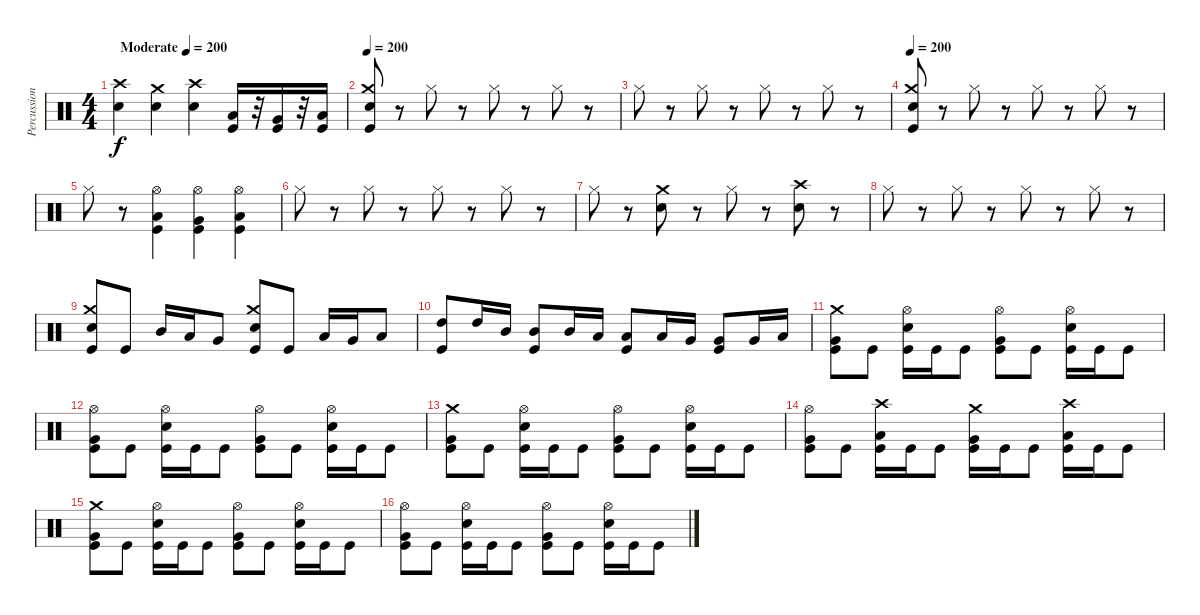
\track ("Percussion" "Percussion") {instrument percussion}
\staff {score}
\articulation defaults
\ts (4 4)
\tempo (200 "Moderate")
\tempo 100
\tempo (200 "Moderate")
\clef neutral
\ks c
("Snare (hit) 2" "Crash high (hit)").4{dy f} ("Snare (hit) 2" "Crash medium (hit)").4 ("Snare (hit) 2" "Crash high (hit)").4 ("Low Floor Tom (hit)" "Kick (hit)").16 r.32 ("Very Low Tom (hit)" "Kick (hit)").16 r.32 ("Low Tom (hit)" "Kick (hit)").16 |
\tempo 200
("Snare (hit) 2" "Crash medium (hit)" "Kick (hit)").8 r.8 "Hi-Hat (closed)".8 r.8 "Hi-Hat (closed)".8 r.8 "Hi-Hat (closed)".8 r.8 |
"Hi-Hat (closed)".8 r.8 "Hi-Hat (closed)".8 r.8 "Hi-Hat (closed)".8 r.8 "Hi-Hat (closed)".8 r.8 |
\tempo 200
("Snare (hit) 2" "Crash medium (hit)" "Kick (hit)").8 r.8 "Hi-Hat (closed)".8 r.8 "Hi-Hat (closed)".8 r.8 "Hi-Hat (closed)".8 r.8 |
"Hi-Hat (closed)".8 r.8 ("Low Tom (hit)" "Hi-Hat (open)" "Kick (hit)").4 ("Very Low Tom (hit)" "Hi-Hat (open)" "Kick (hit)").4 ("Low Floor Tom (hit)" "Hi-Hat (open)" "Kick (hit)").4 |
"Hi-Hat (closed)".8 r.8 "Hi-Hat (closed)".8 r.8 "Hi-Hat (closed)".8 r.8 "Hi-Hat (closed)".8 r.8 |
"Hi-Hat (closed)".8 r.8 ("Snare (hit) 2" "Crash medium (hit)").8 r.8 "Hi-Hat (closed)".8 r.8 ("Snare (hit) 2" "Crash high (hit)").8 r.8 |
"Hi-Hat (closed)".8 r.8 "Hi-Hat (closed)".8 r.8 "Hi-Hat (closed)".8 r.8 "Hi-Hat (closed)".8 r.8 |
("Snare (hit) 2" "Crash medium (hit)" "Kick (hit)").8 "Kick (hit)".8 "Mid Tom (hit)".16 "Low Tom (hit)".16 "Very Low Tom (hit)".8 ("Snare (hit) 2" "Crash medium (hit)" "Kick (hit)").8 "Kick (hit)".8 "Low Tom (hit)".16 "Very Low Tom (hit)".16 "Low Floor Tom (hit)".8 |
("High Tom (hit)" "Kick (hit)").8{balance 6} "High Tom (hit)".16 "Mid Tom (hit)".16 ("Mid Tom (hit)" "Kick (hit)").8{balance 4} "Mid Tom (hit)".16 "Low Tom (hit)".16 ("Low Tom (hit)" "Kick (hit)").8{balance 10} "Low Tom (hit)".16 "Very Low Tom (hit)".16 ("Very Low Tom (hit)" "Kick (hit)").8{balance 12} "Very Low Tom (hit)".16 "Low Floor Tom (hit)".16 |
("Kick (hit)" "Very Low Tom (hit)" "Crash medium (hit)").8{balance 8} "Kick (hit)".8 ("Kick (hit)" "Snare (hit) 2" "Hi-Hat (open)").16 "Kick (hit)".16 "Kick (hit)".8 ("Kick (hit)" "Very Low Tom (hit)" "Hi-Hat (open)").8 "Kick (hit)".8 ("Kick (hit)" "Snare (hit) 2" "Hi-Hat (open)").16 "Kick (hit)".16 "Kick (hit)".8 |
("Kick (hit)" "Very Low Tom (hit)" "Hi-Hat (open)").8 "Kick (hit)".8 ("Kick (hit)" "Snare (hit) 2" "Hi-Hat (open)").16 "Kick (hit)".16 "Kick (hit)".8 ("Kick (hit)" "Very Low Tom (hit)" "Hi-Hat (open)").8 "Kick (hit)".8 ("Kick (hit)" "Snare (hit) 2" "Hi-Hat (open)").16 "Kick (hit)".16 "Kick (hit)".8 |
("Kick (hit)" "Very Low Tom (hit)" "Crash medium (hit)").8 "Kick (hit)".8 ("Kick (hit)" "Snare (hit) 2" "Hi-Hat (open)").16 "Kick (hit)".16 "Kick (hit)".8 ("Kick (hit)" "Very Low Tom (hit)" "Hi-Hat (open)").8 "Kick (hit)".8 ("Kick (hit)" "Snare (hit) 2" "Hi-Hat (open)").16 "Kick (hit)".16 "Kick (hit)".8 |
("Kick (hit)" "Very Low Tom (hit)" "Hi-Hat (open)").8 "Kick (hit)".8 ("Low Tom (hit)" "Crash high (hit)" "Kick (hit)").16 "Kick (hit)".16 "Kick (hit)".8 ("Very Low Tom (hit)" "Crash medium (hit)" "Kick (hit)").16 "Kick (hit)".16 "Kick (hit)".8 ("Low Floor Tom (hit)" "Crash high (hit)" "Kick (hit)").16 "Kick (hit)".16 "Kick (hit)".8 |
("Kick (hit)" "Very Low Tom (hit)" "Crash medium (hit)").8 "Kick (hit)".8 ("Kick (hit)" "Snare (hit) 2" "Hi-Hat (open)").16 "Kick (hit)".16 "Kick (hit)".8 ("Kick (hit)" "Very Low Tom (hit)" "Hi-Hat (open)").8 "Kick (hit)".8 ("Kick (hit)" "Snare (hit) 2" "Hi-Hat (open)").16 "Kick (hit)".16 "Kick (hit)".8 |
("Kick (hit)" "Very Low Tom (hit)" "Hi-Hat (open)").8 "Kick (hit)".8 ("Kick (hit)" "Snare (hit) 2" "Hi-Hat (open)").16 "Kick (hit)".16 "Kick (hit)".8 ("Kick (hit)" "Very Low Tom (hit)" "Hi-Hat (open)").8 "Kick (hit)".8 ("Kick (hit)" "Snare (hit) 2" "Hi-Hat (open)").16 "Kick (hit)".16 "Kick (hit)".8
